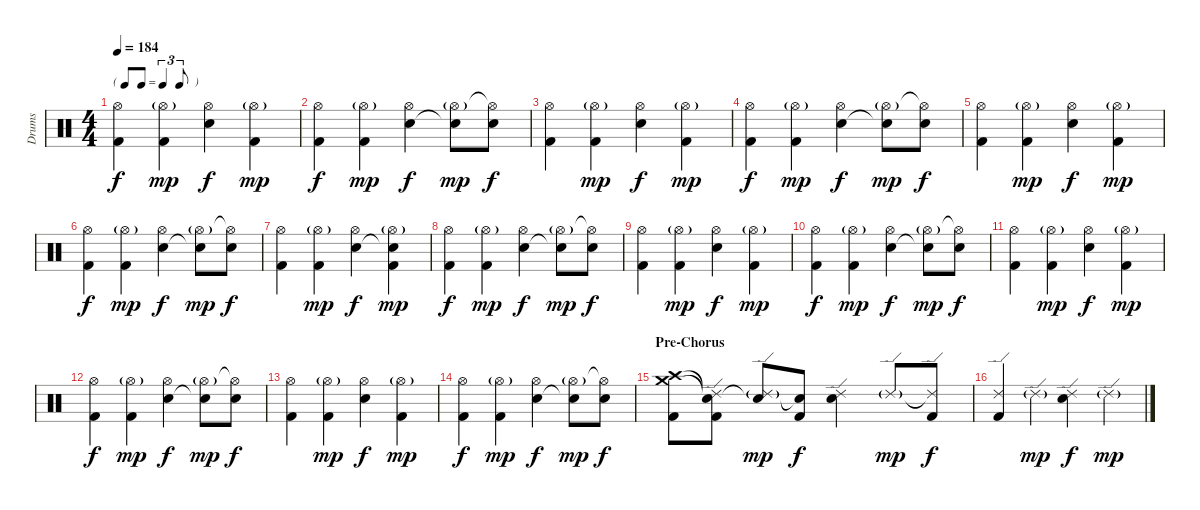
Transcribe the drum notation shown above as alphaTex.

\track ("Drums" "Drums") {instrument percussion}
\staff {score}
\articulation defaults
\ts (4 4)
\tf triplet8th
\tempo 184
\clef neutral
\ks c
("Hi-Hat (open)" "Kick (hit) 2").4{dy f} ("Hi-Hat (open)"{g} "Kick (hit) 2").4{dy mp} ("Hi-Hat (open)" "Electric Snare (hit)").4{dy f} ("Hi-Hat (open)"{g} "Kick (hit) 2").4{dy mp} |
("Hi-Hat (open)" "Kick (hit) 2").4{dy f} ("Hi-Hat (open)"{g} "Kick (hit) 2").4{dy mp} ("Hi-Hat (open)" "Electric Snare (hit)").4{dy f} ("Hi-Hat (open)"{g} "Snare (hit)"{t}).8{dy mp} ("Hi-Hat (open)"{t} "Electric Snare (hit)").8{dy f} |
("Hi-Hat (open)" "Kick (hit) 2").4 ("Hi-Hat (open)"{g} "Kick (hit) 2").4{dy mp} ("Hi-Hat (open)" "Electric Snare (hit)").4{dy f} ("Hi-Hat (open)"{g} "Kick (hit) 2").4{dy mp} |
("Hi-Hat (open)" "Kick (hit) 2").4{dy f} ("Hi-Hat (open)"{g} "Kick (hit) 2").4{dy mp} ("Hi-Hat (open)" "Electric Snare (hit)").4{dy f} ("Hi-Hat (open)"{g} "Snare (hit)"{t}).8{dy mp} ("Hi-Hat (open)"{t} "Electric Snare (hit)").8{dy f} |
("Hi-Hat (open)" "Kick (hit) 2").4 ("Hi-Hat (open)"{g} "Kick (hit) 2").4{dy mp} ("Hi-Hat (open)" "Electric Snare (hit)").4{dy f} ("Hi-Hat (open)"{g} "Kick (hit) 2").4{dy mp} |
("Hi-Hat (open)" "Kick (hit) 2").4{dy f} ("Hi-Hat (open)"{g} "Kick (hit) 2").4{dy mp} ("Hi-Hat (open)" "Electric Snare (hit)").4{dy f} ("Hi-Hat (open)"{g} "Snare (hit)"{t}).8{dy mp} ("Hi-Hat (open)"{t} "Electric Snare (hit)").8{dy f} |
("Hi-Hat (open)" "Kick (hit) 2").4 ("Hi-Hat (open)"{g} "Kick (hit) 2").4{dy mp} ("Hi-Hat (open)" "Electric Snare (hit)").4{dy f} ("Hi-Hat (open)"{g} "Snare (hit)"{t} "Kick (hit) 2").4{dy mp} |
("Hi-Hat (open)" "Kick (hit) 2").4{dy f} ("Hi-Hat (open)"{g} "Kick (hit) 2").4{dy mp} ("Hi-Hat (open)" "Electric Snare (hit)").4{dy f} ("Hi-Hat (open)"{g} "Snare (hit)"{t}).8{dy mp} ("Hi-Hat (open)"{t} "Electric Snare (hit)").8{dy f} |
("Hi-Hat (open)" "Kick (hit) 2").4 ("Hi-Hat (open)"{g} "Kick (hit) 2").4{dy mp} ("Hi-Hat (open)" "Electric Snare (hit)").4{dy f} ("Hi-Hat (open)"{g} "Kick (hit) 2").4{dy mp} |
("Hi-Hat (open)" "Kick (hit) 2").4{dy f} ("Hi-Hat (open)"{g} "Kick (hit) 2").4{dy mp} ("Hi-Hat (open)" "Electric Snare (hit)").4{dy f} ("Hi-Hat (open)"{g} "Snare (hit)"{t}).8{dy mp} ("Hi-Hat (open)"{t} "Electric Snare (hit)").8{dy f} |
("Hi-Hat (open)" "Kick (hit) 2").4 ("Hi-Hat (open)"{g} "Kick (hit) 2").4{dy mp} ("Hi-Hat (open)" "Electric Snare (hit)").4{dy f} ("Hi-Hat (open)"{g} "Kick (hit) 2").4{dy mp} |
("Hi-Hat (open)" "Kick (hit) 2").4{dy f} ("Hi-Hat (open)"{g} "Kick (hit) 2").4{dy mp} ("Hi-Hat (open)" "Electric Snare (hit)").4{dy f} ("Hi-Hat (open)"{g} "Snare (hit)"{t}).8{dy mp} ("Hi-Hat (open)"{t} "Electric Snare (hit)").8{dy f} |
("Hi-Hat (open)" "Kick (hit) 2").4 ("Hi-Hat (open)"{g} "Kick (hit) 2").4{dy mp} ("Hi-Hat (open)" "Electric Snare (hit)").4{dy f} ("Hi-Hat (open)"{g} "Kick (hit) 2").4{dy mp} |
("Hi-Hat (open)" "Kick (hit) 2").4{dy f} ("Hi-Hat (open)"{g} "Kick (hit) 2").4{dy mp} ("Hi-Hat (open)" "Electric Snare (hit)").4{dy f} ("Hi-Hat (open)"{g} "Snare (hit)"{t}).8{dy mp} ("Hi-Hat (open)"{t} "Electric Snare (hit)").8{dy f} |
\section ("" "Pre-Chorus")
("Crash high (hit)" "Crash medium (hit)" "Kick (hit) 2").8 ("Ride (edge) 2"{t} "Snare (hit)"{t} "Kick (hit) 2").8 ("Ride (edge) 2"{g} "Snare (hit)"{t}).8{dy mp} ("Snare (hit)"{t} "Kick (hit) 2").8{dy f} ("Ride (edge) 2" "Electric Snare (hit)").4 "Ride (edge) 2"{g}.8{dy mp} ("Ride (edge) 2"{t} "Kick (hit) 2").8{dy f} |
("Ride (edge) 2" "Kick (hit) 2").4 "Ride (edge) 2"{g}.4{dy mp} ("Ride (edge) 2" "Electric Snare (hit)").4{dy f} "Ride (edge) 2"{g}.4{dy mp}
